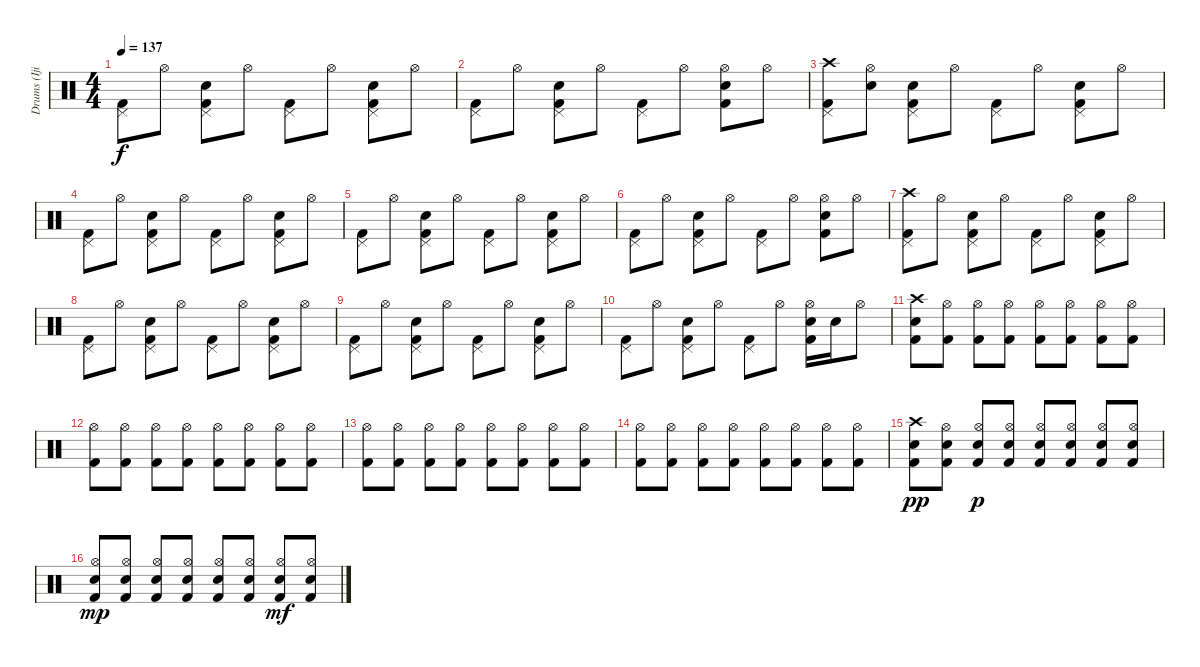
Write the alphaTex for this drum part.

\track ("Drums (Ijichi)" "Drums (Iji") {instrument percussion}
\staff {score}
\articulation defaults
\ts (4 4)
\tempo 137
\clef neutral
\ks c
("Pedal Hi-Hat (hit)" "Kick (hit) 2").8{dy f} "Hi-Hat (open)".8 ("Pedal Hi-Hat (hit)" "Snare (hit) 2" "Kick (hit) 2").8 "Hi-Hat (open)".8 ("Pedal Hi-Hat (hit)" "Kick (hit) 2").8 "Hi-Hat (open)".8 ("Pedal Hi-Hat (hit)" "Snare (hit) 2" "Kick (hit) 2").8 "Hi-Hat (open)".8 |
("Pedal Hi-Hat (hit)" "Kick (hit) 2").8 "Hi-Hat (open)".8 ("Pedal Hi-Hat (hit)" "Snare (hit) 2" "Kick (hit) 2").8 "Hi-Hat (open)".8 ("Pedal Hi-Hat (hit)" "Kick (hit) 2").8 "Hi-Hat (open)".8 ("Hi-Hat (open)" "Snare (hit) 2" "Kick (hit) 2").8 "Hi-Hat (open)".8 |
("Crash high (hit)" "Pedal Hi-Hat (hit)" "Kick (hit) 2").8 ("Hi-Hat (open)" "Snare (hit) 2").8 ("Pedal Hi-Hat (hit)" "Snare (hit) 2" "Kick (hit) 2").8 "Hi-Hat (open)".8 ("Pedal Hi-Hat (hit)" "Kick (hit) 2").8 "Hi-Hat (open)".8 ("Pedal Hi-Hat (hit)" "Snare (hit) 2" "Kick (hit) 2").8 "Hi-Hat (open)".8 |
("Pedal Hi-Hat (hit)" "Kick (hit) 2").8 "Hi-Hat (open)".8 ("Pedal Hi-Hat (hit)" "Snare (hit) 2" "Kick (hit) 2").8 "Hi-Hat (open)".8 ("Pedal Hi-Hat (hit)" "Kick (hit) 2").8 "Hi-Hat (open)".8 ("Pedal Hi-Hat (hit)" "Snare (hit) 2" "Kick (hit) 2").8 "Hi-Hat (open)".8 |
("Pedal Hi-Hat (hit)" "Kick (hit) 2").8 "Hi-Hat (open)".8 ("Pedal Hi-Hat (hit)" "Snare (hit) 2" "Kick (hit) 2").8 "Hi-Hat (open)".8 ("Pedal Hi-Hat (hit)" "Kick (hit) 2").8 "Hi-Hat (open)".8 ("Pedal Hi-Hat (hit)" "Snare (hit) 2" "Kick (hit) 2").8 "Hi-Hat (open)".8 |
("Pedal Hi-Hat (hit)" "Kick (hit) 2").8 "Hi-Hat (open)".8 ("Pedal Hi-Hat (hit)" "Snare (hit) 2" "Kick (hit) 2").8 "Hi-Hat (open)".8 ("Pedal Hi-Hat (hit)" "Kick (hit) 2").8 "Hi-Hat (open)".8 ("Hi-Hat (open)" "Snare (hit) 2" "Kick (hit) 2").8 "Hi-Hat (open)".8 |
("Crash high (hit)" "Pedal Hi-Hat (hit)" "Kick (hit) 2").8 "Hi-Hat (open)".8 ("Pedal Hi-Hat (hit)" "Snare (hit) 2" "Kick (hit) 2").8 "Hi-Hat (open)".8 ("Pedal Hi-Hat (hit)" "Kick (hit) 2").8 "Hi-Hat (open)".8 ("Pedal Hi-Hat (hit)" "Snare (hit) 2" "Kick (hit) 2").8 "Hi-Hat (open)".8 |
("Pedal Hi-Hat (hit)" "Kick (hit) 2").8 "Hi-Hat (open)".8 ("Pedal Hi-Hat (hit)" "Snare (hit) 2" "Kick (hit) 2").8 "Hi-Hat (open)".8 ("Pedal Hi-Hat (hit)" "Kick (hit) 2").8 "Hi-Hat (open)".8 ("Pedal Hi-Hat (hit)" "Snare (hit) 2" "Kick (hit) 2").8 "Hi-Hat (open)".8 |
("Pedal Hi-Hat (hit)" "Kick (hit) 2").8 "Hi-Hat (open)".8 ("Pedal Hi-Hat (hit)" "Snare (hit) 2" "Kick (hit) 2").8 "Hi-Hat (open)".8 ("Pedal Hi-Hat (hit)" "Kick (hit) 2").8 "Hi-Hat (open)".8 ("Pedal Hi-Hat (hit)" "Snare (hit) 2" "Kick (hit) 2").8 "Hi-Hat (open)".8 |
("Pedal Hi-Hat (hit)" "Kick (hit) 2").8 "Hi-Hat (open)".8 ("Pedal Hi-Hat (hit)" "Snare (hit) 2" "Kick (hit) 2").8 "Hi-Hat (open)".8 ("Pedal Hi-Hat (hit)" "Kick (hit) 2").8 "Hi-Hat (open)".8 ("Hi-Hat (open)" "Snare (hit) 2" "Kick (hit) 2").16 "Snare (hit) 2".16 "Hi-Hat (open)".8 |
("Crash high (hit)" "Snare (hit) 2" "Kick (hit) 2").8 ("Hi-Hat (open)" "Kick (hit) 2").8 ("Hi-Hat (open)" "Kick (hit) 2").8 ("Hi-Hat (open)" "Kick (hit) 2").8 ("Hi-Hat (open)" "Kick (hit) 2").8 ("Hi-Hat (open)" "Kick (hit) 2").8 ("Hi-Hat (open)" "Kick (hit) 2").8 ("Hi-Hat (open)" "Kick (hit) 2").8 |
("Hi-Hat (open)" "Kick (hit) 2").8 ("Hi-Hat (open)" "Kick (hit) 2").8 ("Hi-Hat (open)" "Kick (hit) 2").8 ("Hi-Hat (open)" "Kick (hit) 2").8 ("Hi-Hat (open)" "Kick (hit) 2").8 ("Hi-Hat (open)" "Kick (hit) 2").8 ("Hi-Hat (open)" "Kick (hit) 2").8 ("Hi-Hat (open)" "Kick (hit) 2").8 |
("Hi-Hat (open)" "Kick (hit) 2").8 ("Hi-Hat (open)" "Kick (hit) 2").8 ("Hi-Hat (open)" "Kick (hit) 2").8 ("Hi-Hat (open)" "Kick (hit) 2").8 ("Hi-Hat (open)" "Kick (hit) 2").8 ("Hi-Hat (open)" "Kick (hit) 2").8 ("Hi-Hat (open)" "Kick (hit) 2").8 ("Hi-Hat (open)" "Kick (hit) 2").8 |
("Hi-Hat (open)" "Kick (hit) 2").8 ("Hi-Hat (open)" "Kick (hit) 2").8 ("Hi-Hat (open)" "Kick (hit) 2").8 ("Hi-Hat (open)" "Kick (hit) 2").8 ("Hi-Hat (open)" "Kick (hit) 2").8 ("Hi-Hat (open)" "Kick (hit) 2").8 ("Hi-Hat (open)" "Kick (hit) 2").8 ("Hi-Hat (open)" "Kick (hit) 2").8 |
("Crash high (hit)" "Snare (hit) 2" "Kick (hit) 2").8{dy pp} ("Hi-Hat (open)" "Snare (hit) 2" "Kick (hit) 2").8 ("Hi-Hat (open)" "Snare (hit) 2" "Kick (hit) 2").8{dy p} ("Hi-Hat (open)" "Snare (hit) 2" "Kick (hit) 2").8 ("Hi-Hat (open)" "Snare (hit) 2" "Kick (hit) 2").8 ("Hi-Hat (open)" "Snare (hit) 2" "Kick (hit) 2").8 ("Hi-Hat (open)" "Snare (hit) 2" "Kick (hit) 2").8 ("Hi-Hat (open)" "Snare (hit) 2" "Kick (hit) 2").8 |
("Hi-Hat (open)" "Snare (hit) 2" "Kick (hit) 2").8{dy mp} ("Hi-Hat (open)" "Snare (hit) 2" "Kick (hit) 2").8 ("Hi-Hat (open)" "Snare (hit) 2" "Kick (hit) 2").8 ("Hi-Hat (open)" "Snare (hit) 2" "Kick (hit) 2").8 ("Hi-Hat (open)" "Snare (hit) 2" "Kick (hit) 2").8 ("Hi-Hat (open)" "Snare (hit) 2" "Kick (hit) 2").8 ("Hi-Hat (open)" "Snare (hit) 2" "Kick (hit) 2").8{dy mf} ("Hi-Hat (open)" "Snare (hit) 2" "Kick (hit) 2").8
